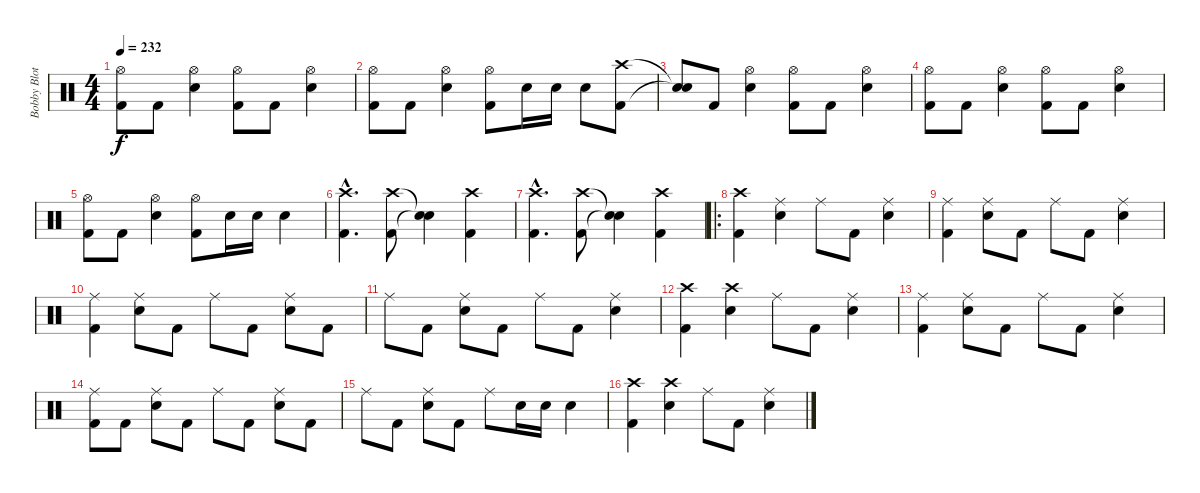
\track ("Bobby Blotzer" "Bobby Blot") {instrument percussion}
\staff {score}
\articulation defaults
\ts (4 4)
\tempo 232
\clef neutral
\ks c
("Hi-Hat (open)" "Kick (hit) 2").8{dy f} "Kick (hit) 2".8 ("Hi-Hat (open)" "Electric Snare (hit)").4 ("Hi-Hat (open)" "Kick (hit) 2").8 "Kick (hit) 2".8 ("Hi-Hat (open)" "Electric Snare (hit)").4 |
("Hi-Hat (open)" "Kick (hit) 2").8 "Kick (hit) 2".8 ("Hi-Hat (open)" "Electric Snare (hit)").4 ("Hi-Hat (open)" "Kick (hit) 2").8 "Electric Snare (hit)".16 "Electric Snare (hit)".16 "Electric Snare (hit)".8 ("Crash high (hit)" "Kick (hit) 2").8 |
("Snare (hit)"{t} "Snare (hit)"{t}).8 "Kick (hit) 2".8 ("Hi-Hat (open)" "Electric Snare (hit)").4 ("Hi-Hat (open)" "Kick (hit) 2").8 "Kick (hit) 2".8 ("Hi-Hat (open)" "Electric Snare (hit)").4 |
("Hi-Hat (open)" "Kick (hit) 2").8 "Kick (hit) 2".8 ("Hi-Hat (open)" "Electric Snare (hit)").4 ("Hi-Hat (open)" "Kick (hit) 2").8 "Kick (hit) 2".8 ("Hi-Hat (open)" "Electric Snare (hit)").4 |
("Hi-Hat (open)" "Kick (hit) 2").8 "Kick (hit) 2".8 ("Hi-Hat (open)" "Electric Snare (hit)").4 ("Hi-Hat (open)" "Kick (hit) 2").8 "Electric Snare (hit)".16 "Electric Snare (hit)".16 "Electric Snare (hit)".4 |
("Crash high (hit)"{hac} "Kick (hit) 2"{hac}).4{d} ("Crash high (hit)" "Kick (hit) 2").8 ("Snare (hit)"{t} "Snare (hit)"{t}).4 ("Crash high (hit)" "Kick (hit) 2").4 |
("Crash high (hit)"{hac} "Kick (hit) 2"{hac}).4{d} ("Crash high (hit)" "Kick (hit) 2").8 ("Snare (hit)"{t} "Snare (hit)"{t}).4 ("Crash high (hit)" "Kick (hit) 2").4 |
\ro
("Crash high (hit)" "Kick (hit) 2").4 ("Ride (middle)" "Electric Snare (hit)").4 "Ride (middle)".8 "Kick (hit) 2".8 ("Ride (middle)" "Electric Snare (hit)").4 |
("Ride (middle)" "Kick (hit) 2").4 ("Ride (middle)" "Electric Snare (hit)").8 "Kick (hit) 2".8 "Ride (middle)".8 "Kick (hit) 2".8 ("Ride (middle)" "Electric Snare (hit)").4 |
("Ride (middle)" "Kick (hit) 2").4 ("Ride (middle)" "Electric Snare (hit)").8 "Kick (hit) 2".8 "Ride (middle)".8 "Kick (hit) 2".8 ("Ride (middle)" "Electric Snare (hit)").8 "Kick (hit) 2".8 |
"Ride (middle)".8 "Kick (hit) 2".8 ("Ride (middle)" "Electric Snare (hit)").8 "Kick (hit) 2".8 "Ride (middle)".8 "Kick (hit) 2".8 ("Ride (middle)" "Electric Snare (hit)").4 |
("Crash high (hit)" "Kick (hit) 2").4 ("Crash high (hit)" "Electric Snare (hit)").4 "Ride (middle)".8 "Kick (hit) 2".8 ("Ride (middle)" "Electric Snare (hit)").4 |
("Ride (middle)" "Kick (hit) 2").4 ("Ride (middle)" "Electric Snare (hit)").8 "Kick (hit) 2".8 "Ride (middle)".8 "Kick (hit) 2".8 ("Ride (middle)" "Electric Snare (hit)").4 |
("Ride (middle)" "Kick (hit) 2").8 "Kick (hit) 2".8 ("Ride (middle)" "Electric Snare (hit)").8 "Kick (hit) 2".8 "Ride (middle)".8 "Kick (hit) 2".8 ("Ride (middle)" "Electric Snare (hit)").8 "Kick (hit) 2".8 |
"Ride (middle)".8 "Kick (hit) 2".8 ("Ride (middle)" "Electric Snare (hit)").8 "Kick (hit) 2".8 "Ride (middle)".8 "Electric Snare (hit)".16 "Electric Snare (hit)".16 "Electric Snare (hit)".4 |
("Crash high (hit)" "Kick (hit) 2").4 ("Crash high (hit)" "Electric Snare (hit)").4 "Ride (middle)".8 "Kick (hit) 2".8 ("Ride (middle)" "Electric Snare (hit)").4
